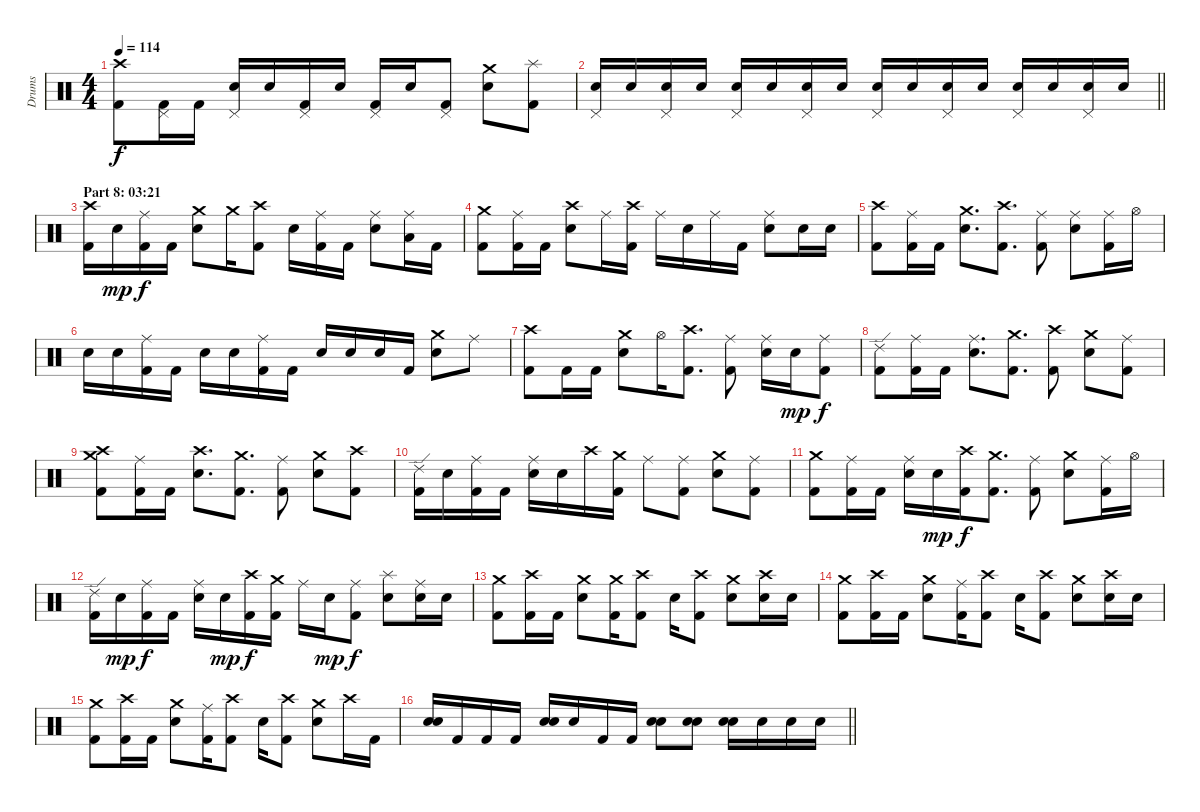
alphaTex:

\track ("Drums" "Drums") {instrument percussion}
\staff {score}
\articulation defaults
\ts (4 4)
\tempo 114
\clef neutral
\ks c
("Crash high (hit)" "Kick (hit) 2").8{dy f} ("Pedal Hi-Hat (hit)" "Kick (hit) 2").16 "Kick (hit) 2".16 ("Pedal Hi-Hat (hit)" "Electric Snare (hit)").16 "Electric Snare (hit)".16 ("Pedal Hi-Hat (hit)" "Kick (hit) 2").16 "Electric Snare (hit)".16 ("Pedal Hi-Hat (hit)" "Kick (hit) 2").16 "Electric Snare (hit)".16 ("Pedal Hi-Hat (hit)" "Kick (hit) 2").8 ("Crash medium (hit)" "Electric Snare (hit)").8 ("Splash (hit)" "Kick (hit) 2").8 |
\barLineRight lightlight
("Pedal Hi-Hat (hit)" "Electric Snare (hit)").16 "Electric Snare (hit)".16 ("Pedal Hi-Hat (hit)" "Electric Snare (hit)").16 "Electric Snare (hit)".16 ("Pedal Hi-Hat (hit)" "Electric Snare (hit)").16 "Electric Snare (hit)".16 ("Pedal Hi-Hat (hit)" "Electric Snare (hit)").16 "Electric Snare (hit)".16 ("Pedal Hi-Hat (hit)" "Electric Snare (hit)").16 "Electric Snare (hit)".16 ("Pedal Hi-Hat (hit)" "Electric Snare (hit)").16 "Electric Snare (hit)".16 ("Pedal Hi-Hat (hit)" "Electric Snare (hit)").16 "Electric Snare (hit)".16 ("Pedal Hi-Hat (hit)" "Electric Snare (hit)").16 "Electric Snare (hit)".16 |
\section ("" "Part 8: 03:21")
("Crash high (hit)" "Kick (hit) 2").16 "Electric Snare (hit)".16{dy mp} ("Ride (middle)" "Kick (hit) 2").16{dy f} "Kick (hit) 2".16 ("Crash medium (hit)" "Electric Snare (hit)").8 "Crash medium (hit)".16 ("Crash high (hit)" "Kick (hit) 2").8 "Electric Snare (hit)".16 ("Ride (middle)" "Kick (hit) 2").16 "Kick (hit) 2".16 ("Ride (middle)" "Electric Snare (hit)").8 ("Ride (middle)" "Low Tom (hit)").16 "Kick (hit) 2".16 |
("Crash medium (hit)" "Kick (hit) 2").8 ("Ride (middle)" "Kick (hit) 2").16 "Kick (hit) 2".16 ("Crash high (hit)" "Electric Snare (hit)").8 "Ride (middle)".16 ("Crash high (hit)" "Kick (hit) 2").16 "Ride (middle)".16 "Electric Snare (hit)".16 "Ride (middle)".16 "Kick (hit) 2".16 ("Ride (middle)" "Electric Snare (hit)").8 "Electric Snare (hit)".16 "Electric Snare (hit)".16 |
("Crash high (hit)" "Kick (hit) 2").8 ("Ride (middle)" "Kick (hit) 2").16 "Kick (hit) 2".16 ("Crash medium (hit)" "Electric Snare (hit)").8{d} ("Crash high (hit)" "Kick (hit) 2").8{d} ("Ride (middle)" "Kick (hit) 2").8 ("Ride (middle)" "Electric Snare (hit)").8 ("Ride (middle)" "Kick (hit) 2").16 "Hi-Hat (open)".16 |
"Electric Snare (hit)".16 "Electric Snare (hit)".16 ("Ride (middle)" "Kick (hit) 2").16 "Kick (hit) 2".16 "Electric Snare (hit)".16 "Electric Snare (hit)".16 ("Ride (middle)" "Kick (hit) 2").16 "Kick (hit) 2".16 "Electric Snare (hit)".16 "Electric Snare (hit)".16 "Electric Snare (hit)".16 "Kick (hit) 2".16 ("Crash medium (hit)" "Electric Snare (hit)").8 "Ride (middle)".8 |
("Crash high (hit)" "Kick (hit) 2").8 "Kick (hit) 2".16 "Kick (hit) 2".16 ("Crash medium (hit)" "Electric Snare (hit)").8 "Hi-Hat (open)".16 ("Crash high (hit)" "Kick (hit) 2").8{d} ("Ride (middle)" "Kick (hit) 2").8 ("Ride (middle)" "Electric Snare (hit)").16 "Electric Snare (hit)".16{dy mp} ("Ride (middle)" "Kick (hit) 2").8{dy f} |
("Ride (edge) 2" "Kick (hit) 2").8 ("Ride (middle)" "Kick (hit) 2").16 "Kick (hit) 2".16 ("Ride (middle)" "Electric Snare (hit)").8{d} ("Crash medium (hit)" "Kick (hit) 2").8{d} ("Crash high (hit)" "Kick (hit) 2").8 ("Crash medium (hit)" "Electric Snare (hit)").8 ("Ride (middle)" "Kick (hit) 2").8 |
("Crash high (hit)" "Crash medium (hit)" "Kick (hit) 2").8 ("Ride (middle)" "Kick (hit) 2").16 "Kick (hit) 2".16 ("Crash high (hit)" "Electric Snare (hit)").8{d} ("Crash medium (hit)" "Kick (hit) 2").8{d} ("Ride (middle)" "Kick (hit) 2").8 ("Crash medium (hit)" "Electric Snare (hit)").8 ("Crash high (hit)" "Kick (hit) 2").8 |
("Ride (edge) 2" "Kick (hit) 2").16 "Electric Snare (hit)".16 ("Ride (middle)" "Kick (hit) 2").16 "Kick (hit) 2".16 ("Ride (middle)" "Electric Snare (hit)").16 "Electric Snare (hit)".16 "Crash high (hit)".16 ("Crash medium (hit)" "Kick (hit) 2").16 "Ride (middle)".8 ("Ride (middle)" "Kick (hit) 2").8 ("Crash medium (hit)" "Electric Snare (hit)").8 ("Ride (middle)" "Kick (hit) 2").8 |
("Crash medium (hit)" "Kick (hit) 2").8 ("Ride (middle)" "Kick (hit) 2").16 "Kick (hit) 2".16 ("Ride (middle)" "Electric Snare (hit)").16 "Electric Snare (hit)".16{dy mp} ("Crash high (hit)" "Kick (hit) 2").16{dy f} ("Crash medium (hit)" "Kick (hit) 2").8{d} ("Ride (middle)" "Kick (hit) 2").8 ("Crash medium (hit)" "Electric Snare (hit)").8 ("Ride (middle)" "Kick (hit) 2").16 "Hi-Hat (open)".16 |
("Ride (edge) 2" "Kick (hit) 2").16 "Electric Snare (hit)".16{dy mp} ("Ride (middle)" "Kick (hit) 2").16{dy f} "Kick (hit) 2".16 ("Ride (middle)" "Electric Snare (hit)").16 "Electric Snare (hit)".16{dy mp} ("Crash high (hit)" "Kick (hit) 2").16{dy f} ("Crash medium (hit)" "Kick (hit) 2").16 "Ride (middle)".16 "Electric Snare (hit)".16{dy mp} ("Ride (middle)" "Kick (hit) 2").8{dy f} ("Splash (hit)" "Electric Snare (hit)").8 ("Ride (middle)" "Electric Snare (hit)").16 "Electric Snare (hit)".16 |
("Crash medium (hit)" "Kick (hit) 2").8 ("Crash high (hit)" "Kick (hit) 2").16 "Kick (hit) 2".16 ("Crash medium (hit)" "Electric Snare (hit)").8 ("Crash medium (hit)" "Kick (hit) 2").16 ("Crash high (hit)" "Kick (hit) 2").8 "Electric Snare (hit)".16 ("Crash high (hit)" "Kick (hit) 2").8 ("Crash medium (hit)" "Electric Snare (hit)").8 ("Crash high (hit)" "Electric Snare (hit)").16 "Electric Snare (hit)".16 |
("Crash medium (hit)" "Kick (hit) 2").8 ("Crash high (hit)" "Kick (hit) 2").16 "Kick (hit) 2".16 ("Crash medium (hit)" "Electric Snare (hit)").8 ("Ride (middle)" "Kick (hit) 2").16 ("Crash high (hit)" "Kick (hit) 2").8 "Electric Snare (hit)".16 ("Crash high (hit)" "Kick (hit) 2").8 ("Crash medium (hit)" "Electric Snare (hit)").8 ("Crash high (hit)" "Electric Snare (hit)").16 "Electric Snare (hit)".16 |
("Crash medium (hit)" "Kick (hit) 2").8 ("Crash high (hit)" "Kick (hit) 2").16 "Kick (hit) 2".16 ("Crash medium (hit)" "Electric Snare (hit)").8 ("Ride (middle)" "Kick (hit) 2").16 ("Crash high (hit)" "Kick (hit) 2").8 "Electric Snare (hit)".16 ("Crash high (hit)" "Kick (hit) 2").8 ("Crash medium (hit)" "Electric Snare (hit)").8 "Crash high (hit)".16 "Kick (hit) 2".16 |
\barLineRight lightlight
("Electric Snare (hit)" "Electric Snare (hit)").16{bu 60} "Kick (hit) 2".16 "Kick (hit) 2".16 "Kick (hit) 2".16 ("Electric Snare (hit)" "Electric Snare (hit)").16{bu 60} "Electric Snare (hit)".16 "Kick (hit) 2".16 "Kick (hit) 2".16 ("Electric Snare (hit)" "Electric Snare (hit)").8{bu 60} ("Electric Snare (hit)" "Electric Snare (hit)").8{bu 60} ("Electric Snare (hit)" "Electric Snare (hit)").16{bu 60} "Electric Snare (hit)".16 "Electric Snare (hit)".16 "Electric Snare (hit)".16
